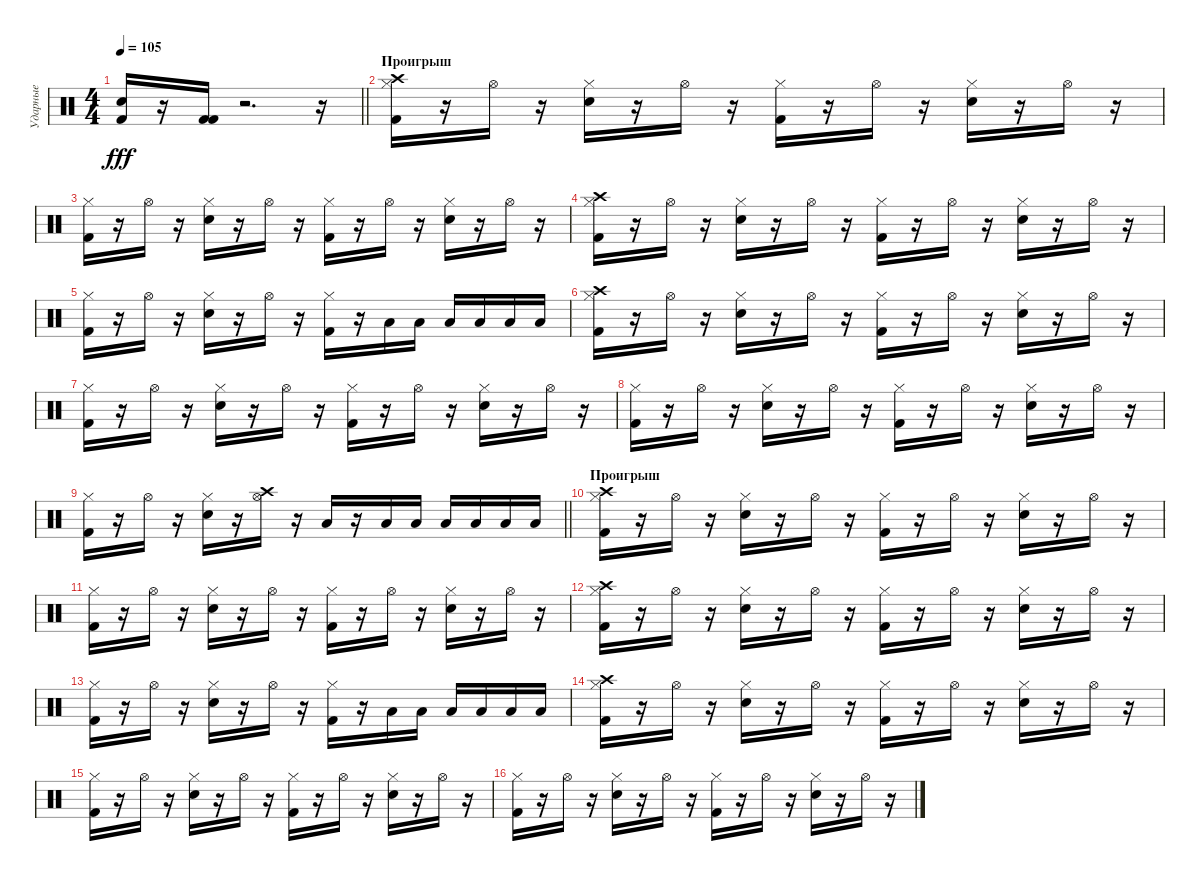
\track ("Ударные" "Ударные") {instrument percussion}
\staff {score}
\articulation defaults
\ts (4 4)
\tempo 105
\clef neutral
\barLineRight lightlight
\ks c
("Kick (hit) 2" "Snare (hit) 2").16{dy fff} r.16 ("Kick (hit) 2" "Kick (hit) 2").16 r.2{d} r.16 |
\section ("" "Проигрыш")
("Kick (hit) 2" "Hi-Hat (closed)" "Crash high (hit)").16 r.16 "Hi-Hat (open)".16 r.16 ("Snare (hit) 2" "Hi-Hat (closed)").16 r.16 "Hi-Hat (open)".16 r.16 ("Kick (hit) 2" "Hi-Hat (closed)").16 r.16 "Hi-Hat (open)".16 r.16 ("Snare (hit) 2" "Hi-Hat (closed)").16 r.16 "Hi-Hat (open)".16 r.16 |
("Kick (hit) 2" "Hi-Hat (closed)").16 r.16 "Hi-Hat (open)".16 r.16 ("Snare (hit) 2" "Hi-Hat (closed)").16 r.16 "Hi-Hat (open)".16 r.16 ("Kick (hit) 2" "Hi-Hat (closed)").16 r.16 "Hi-Hat (open)".16 r.16 ("Snare (hit) 2" "Hi-Hat (closed)").16 r.16 "Hi-Hat (open)".16 r.16 |
("Kick (hit) 2" "Hi-Hat (closed)" "Crash high (hit)").16 r.16 "Hi-Hat (open)".16 r.16 ("Snare (hit) 2" "Hi-Hat (closed)").16 r.16 "Hi-Hat (open)".16 r.16 ("Kick (hit) 2" "Hi-Hat (closed)").16 r.16 "Hi-Hat (open)".16 r.16 ("Snare (hit) 2" "Hi-Hat (closed)").16 r.16 "Hi-Hat (open)".16 r.16 |
("Kick (hit) 2" "Hi-Hat (closed)").16 r.16 "Hi-Hat (open)".16 r.16 ("Snare (hit) 2" "Hi-Hat (closed)").16 r.16 "Hi-Hat (open)".16 r.16 ("Kick (hit) 2" "Hi-Hat (closed)").16 r.16 "Low Tom (hit)".16 "Low Floor Tom (hit)".16 "Low Tom (hit)".16 "Low Floor Tom (hit)".16 "Low Tom (hit)".16 "Low Floor Tom (hit)".16 |
("Kick (hit) 2" "Hi-Hat (closed)" "Crash high (hit)").16 r.16 "Hi-Hat (open)".16 r.16 ("Snare (hit) 2" "Hi-Hat (closed)").16 r.16 "Hi-Hat (open)".16 r.16 ("Kick (hit) 2" "Hi-Hat (closed)").16 r.16 "Hi-Hat (open)".16 r.16 ("Snare (hit) 2" "Hi-Hat (closed)").16 r.16 "Hi-Hat (open)".16 r.16 |
("Kick (hit) 2" "Hi-Hat (closed)").16 r.16 "Hi-Hat (open)".16 r.16 ("Snare (hit) 2" "Hi-Hat (closed)").16 r.16 "Hi-Hat (open)".16 r.16 ("Kick (hit) 2" "Hi-Hat (closed)").16 r.16 "Hi-Hat (open)".16 r.16 ("Snare (hit) 2" "Hi-Hat (closed)").16 r.16 "Hi-Hat (open)".16 r.16 |
("Kick (hit) 2" "Hi-Hat (closed)").16 r.16 "Hi-Hat (open)".16 r.16 ("Snare (hit) 2" "Hi-Hat (closed)").16 r.16 "Hi-Hat (open)".16 r.16 ("Kick (hit) 2" "Hi-Hat (closed)").16 r.16 "Hi-Hat (open)".16 r.16 ("Snare (hit) 2" "Hi-Hat (closed)").16 r.16 "Hi-Hat (open)".16 r.16 |
\barLineRight lightlight
("Kick (hit) 2" "Hi-Hat (closed)").16 r.16 "Hi-Hat (open)".16 r.16 ("Snare (hit) 2" "Hi-Hat (closed)").16 r.16 ("Hi-Hat (open)" "Crash high (hit)").16 r.16 "Low Floor Tom (hit)".16 r.16 "Low Tom (hit)".16 "Low Floor Tom (hit)".16 "Low Tom (hit)".16 "Low Floor Tom (hit)".16 "Low Tom (hit)".16 "Low Floor Tom (hit)".16 |
\section ("" "Проигрыш")
("Kick (hit) 2" "Hi-Hat (closed)" "Crash high (hit)").16 r.16 "Hi-Hat (open)".16 r.16 ("Snare (hit) 2" "Hi-Hat (closed)").16 r.16 "Hi-Hat (open)".16 r.16 ("Kick (hit) 2" "Hi-Hat (closed)").16 r.16 "Hi-Hat (open)".16 r.16 ("Snare (hit) 2" "Hi-Hat (closed)").16 r.16 "Hi-Hat (open)".16 r.16 |
("Kick (hit) 2" "Hi-Hat (closed)").16 r.16 "Hi-Hat (open)".16 r.16 ("Snare (hit) 2" "Hi-Hat (closed)").16 r.16 "Hi-Hat (open)".16 r.16 ("Kick (hit) 2" "Hi-Hat (closed)").16 r.16 "Hi-Hat (open)".16 r.16 ("Snare (hit) 2" "Hi-Hat (closed)").16 r.16 "Hi-Hat (open)".16 r.16 |
("Kick (hit) 2" "Hi-Hat (closed)" "Crash high (hit)").16 r.16 "Hi-Hat (open)".16 r.16 ("Snare (hit) 2" "Hi-Hat (closed)").16 r.16 "Hi-Hat (open)".16 r.16 ("Kick (hit) 2" "Hi-Hat (closed)").16 r.16 "Hi-Hat (open)".16 r.16 ("Snare (hit) 2" "Hi-Hat (closed)").16 r.16 "Hi-Hat (open)".16 r.16 |
("Kick (hit) 2" "Hi-Hat (closed)").16 r.16 "Hi-Hat (open)".16 r.16 ("Snare (hit) 2" "Hi-Hat (closed)").16 r.16 "Hi-Hat (open)".16 r.16 ("Kick (hit) 2" "Hi-Hat (closed)").16 r.16 "Low Tom (hit)".16 "Low Floor Tom (hit)".16 "Low Tom (hit)".16 "Low Floor Tom (hit)".16 "Low Tom (hit)".16 "Low Floor Tom (hit)".16 |
("Kick (hit) 2" "Hi-Hat (closed)" "Crash high (hit)").16 r.16 "Hi-Hat (open)".16 r.16 ("Snare (hit) 2" "Hi-Hat (closed)").16 r.16 "Hi-Hat (open)".16 r.16 ("Kick (hit) 2" "Hi-Hat (closed)").16 r.16 "Hi-Hat (open)".16 r.16 ("Snare (hit) 2" "Hi-Hat (closed)").16 r.16 "Hi-Hat (open)".16 r.16 |
("Kick (hit) 2" "Hi-Hat (closed)").16 r.16 "Hi-Hat (open)".16 r.16 ("Snare (hit) 2" "Hi-Hat (closed)").16 r.16 "Hi-Hat (open)".16 r.16 ("Kick (hit) 2" "Hi-Hat (closed)").16 r.16 "Hi-Hat (open)".16 r.16 ("Snare (hit) 2" "Hi-Hat (closed)").16 r.16 "Hi-Hat (open)".16 r.16 |
("Kick (hit) 2" "Hi-Hat (closed)").16 r.16 "Hi-Hat (open)".16 r.16 ("Snare (hit) 2" "Hi-Hat (closed)").16 r.16 "Hi-Hat (open)".16 r.16 ("Kick (hit) 2" "Hi-Hat (closed)").16 r.16 "Hi-Hat (open)".16 r.16 ("Snare (hit) 2" "Hi-Hat (closed)").16 r.16 "Hi-Hat (open)".16 r.16
